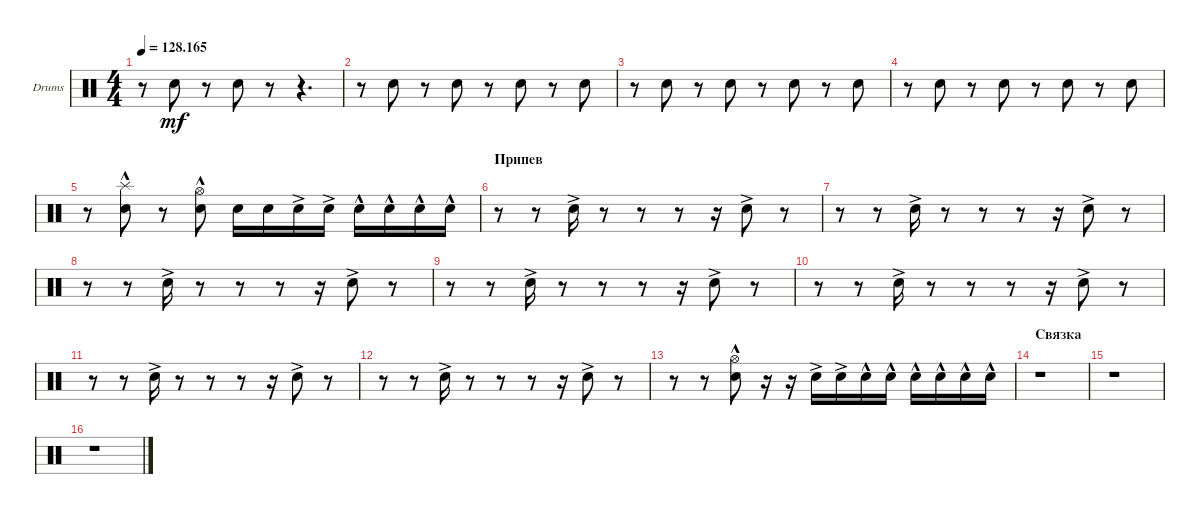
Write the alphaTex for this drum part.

\defaultSystemsLayout 4
\bracketExtendMode groupsimilarinstruments
\firstSystemTrackNameOrientation horizontal
\otherSystemsTrackNameOrientation horizontal
\track ("Drumkit" "Drums") {instrument percussion}
\staff {score}
\articulation defaults
\ts (4 4)
\tempo
128.165
\accidentals auto
\clef neutral
\ottava regular
\simile none
\ks c
r.8{dy mf} "Snare (hit) 2".8 r.8 "Snare (hit) 2".8 r.8 r.4{d} |
r.8 "Snare (hit) 2".8 r.8 "Snare (hit) 2".8 r.8 "Snare (hit) 2".8 r.8 "Snare (hit) 2".8 |
r.8 "Snare (hit) 2".8 r.8 "Snare (hit) 2".8 r.8 "Snare (hit) 2".8 r.8 "Snare (hit) 2".8 |
r.8 "Snare (hit) 2".8 r.8 "Snare (hit) 2".8 r.8 "Snare (hit) 2".8 r.8 "Snare (hit) 2".8 |
r.8 ("Snare (hit) 2" "Splash (hit)"{hac}).8 r.8 ("Snare (hit) 2" "Hi-Hat (open)"{hac}).8 "Snare (hit) 2".16 "Snare (hit) 2".16 "Snare (hit) 2"{ac}.16 "Snare (hit) 2"{ac}.16 "Snare (hit) 2"{hac}.16 "Snare (hit) 2"{hac}.16 "Snare (hit) 2"{hac}.16 "Snare (hit) 2"{hac}.16 |
\section ("" "Припев")
r.8 r.8 "Snare (hit) 2"{ac}.16 r.8 r.8 r.8 r.16 "Snare (hit) 2"{ac}.8 r.8 |
r.8 r.8 "Snare (hit) 2"{ac}.16 r.8 r.8 r.8 r.16 "Snare (hit) 2"{ac}.8 r.8 |
r.8 r.8 "Snare (hit) 2"{ac}.16 r.8 r.8 r.8 r.16 "Snare (hit) 2"{ac}.8 r.8 |
r.8 r.8 "Snare (hit) 2"{ac}.16 r.8 r.8 r.8 r.16 "Snare (hit) 2"{ac}.8 r.8 |
r.8 r.8 "Snare (hit) 2"{ac}.16 r.8 r.8 r.8 r.16 "Snare (hit) 2"{ac}.8 r.8 |
r.8 r.8 "Snare (hit) 2"{ac}.16 r.8 r.8 r.8 r.16 "Snare (hit) 2"{ac}.8 r.8 |
r.8 r.8 "Snare (hit) 2"{ac}.16 r.8 r.8 r.8 r.16 "Snare (hit) 2"{ac}.8 r.8 |
r.8 r.8 ("Snare (hit) 2" "Hi-Hat (open)"{hac}).8 r.16 r.16 "Snare (hit) 2"{ac}.16 "Snare (hit) 2"{ac}.16 "Snare (hit) 2"{hac}.16 "Snare (hit) 2"{hac}.16 "Snare (hit) 2"{hac}.16 "Snare (hit) 2"{hac}.16 "Snare (hit) 2"{hac}.16 "Snare (hit) 2"{hac}.16 |
\section ("" "Связка")
r.1 |
r.1 |
r.1
